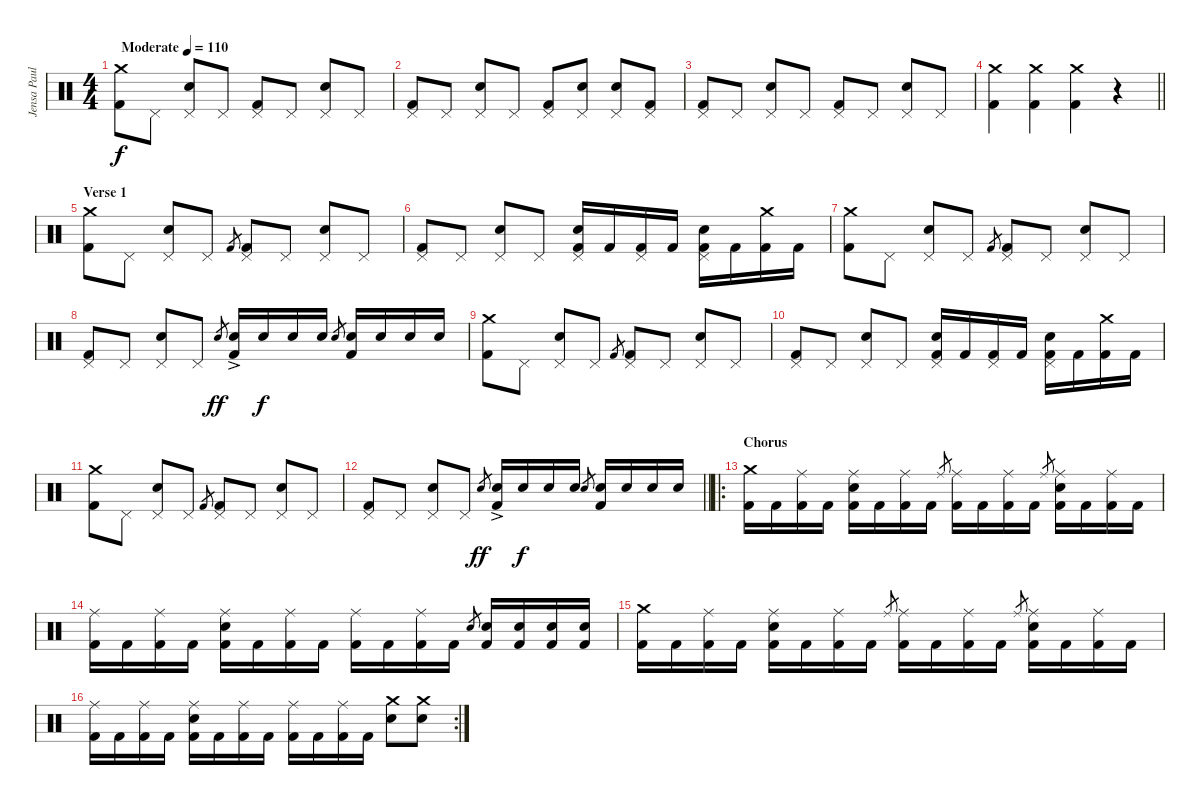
\track ("Jensa Paulsson (Drums)" "Jensa Paul") {instrument percussion}
\staff {score}
\articulation defaults
\ts (4 4)
\tempo (110 "Moderate")
\clef neutral
\ks c
("Crash medium (hit)" "Kick (hit) 2").8{dy f} "Pedal Hi-Hat (hit)".8 ("Pedal Hi-Hat (hit)" "Electric Snare (hit)").8 "Pedal Hi-Hat (hit)".8 ("Pedal Hi-Hat (hit)" "Kick (hit) 2").8 "Pedal Hi-Hat (hit)".8 ("Pedal Hi-Hat (hit)" "Electric Snare (hit)").8 "Pedal Hi-Hat (hit)".8 |
("Pedal Hi-Hat (hit)" "Kick (hit) 2").8 "Pedal Hi-Hat (hit)".8 ("Pedal Hi-Hat (hit)" "Electric Snare (hit)").8 "Pedal Hi-Hat (hit)".8 ("Pedal Hi-Hat (hit)" "Kick (hit) 2").8 ("Pedal Hi-Hat (hit)" "Electric Snare (hit)").8 ("Pedal Hi-Hat (hit)" "Electric Snare (hit)").8 ("Pedal Hi-Hat (hit)" "Kick (hit) 2").8 |
("Pedal Hi-Hat (hit)" "Kick (hit) 2").8 "Pedal Hi-Hat (hit)".8 ("Pedal Hi-Hat (hit)" "Electric Snare (hit)").8 "Pedal Hi-Hat (hit)".8 ("Pedal Hi-Hat (hit)" "Kick (hit) 2").8 "Pedal Hi-Hat (hit)".8 ("Pedal Hi-Hat (hit)" "Electric Snare (hit)").8 "Pedal Hi-Hat (hit)".8 |
\barLineRight lightlight
("Crash medium (hit)" "Kick (hit) 2").4 ("Crash medium (hit)" "Kick (hit) 2").4 ("Crash medium (hit)" "Kick (hit) 2").4 r.4 |
\section ("" "Verse 1")
("Crash medium (hit)" "Kick (hit) 2").8 "Pedal Hi-Hat (hit)".8 ("Pedal Hi-Hat (hit)" "Electric Snare (hit)").8 "Pedal Hi-Hat (hit)".8 "Kick (hit) 2".8{gr} ("Pedal Hi-Hat (hit)" "Kick (hit) 2").8 "Pedal Hi-Hat (hit)".8 ("Pedal Hi-Hat (hit)" "Electric Snare (hit)").8 "Pedal Hi-Hat (hit)".8 |
("Pedal Hi-Hat (hit)" "Kick (hit) 2").8 "Pedal Hi-Hat (hit)".8 ("Pedal Hi-Hat (hit)" "Electric Snare (hit)").8 "Pedal Hi-Hat (hit)".8 ("Pedal Hi-Hat (hit)" "Electric Snare (hit)" "Kick (hit) 2").16 "Kick (hit) 2".16 ("Pedal Hi-Hat (hit)" "Kick (hit) 2").16 "Kick (hit) 2".16 ("Pedal Hi-Hat (hit)" "Electric Snare (hit)" "Kick (hit) 2").16 "Kick (hit) 2".16 ("Crash medium (hit)" "Kick (hit) 2").16 "Kick (hit) 2".16 |
("Crash medium (hit)" "Kick (hit) 2").8 "Pedal Hi-Hat (hit)".8 ("Pedal Hi-Hat (hit)" "Electric Snare (hit)").8 "Pedal Hi-Hat (hit)".8 "Kick (hit) 2".8{gr} ("Pedal Hi-Hat (hit)" "Kick (hit) 2").8 "Pedal Hi-Hat (hit)".8 ("Pedal Hi-Hat (hit)" "Electric Snare (hit)").8 "Pedal Hi-Hat (hit)".8 |
("Pedal Hi-Hat (hit)" "Kick (hit) 2").8 "Pedal Hi-Hat (hit)".8 ("Pedal Hi-Hat (hit)" "Electric Snare (hit)").8 "Pedal Hi-Hat (hit)".8 "Electric Snare (hit)".8{gr dy ff} ("Electric Snare (hit)"{ac} "Kick (hit) 2").16 "Electric Snare (hit)".16{dy f} "Electric Snare (hit)".16 "Electric Snare (hit)".16 "Electric Snare (hit)".8{gr} ("Electric Snare (hit)" "Kick (hit) 2").16 "Electric Snare (hit)".16 "Electric Snare (hit)".16 "Electric Snare (hit)".16 |
("Crash medium (hit)" "Kick (hit) 2").8 "Pedal Hi-Hat (hit)".8 ("Pedal Hi-Hat (hit)" "Electric Snare (hit)").8 "Pedal Hi-Hat (hit)".8 "Kick (hit) 2".8{gr} ("Pedal Hi-Hat (hit)" "Kick (hit) 2").8 "Pedal Hi-Hat (hit)".8 ("Pedal Hi-Hat (hit)" "Electric Snare (hit)").8 "Pedal Hi-Hat (hit)".8 |
("Pedal Hi-Hat (hit)" "Kick (hit) 2").8 "Pedal Hi-Hat (hit)".8 ("Pedal Hi-Hat (hit)" "Electric Snare (hit)").8 "Pedal Hi-Hat (hit)".8 ("Pedal Hi-Hat (hit)" "Electric Snare (hit)" "Kick (hit) 2").16 "Kick (hit) 2".16 ("Pedal Hi-Hat (hit)" "Kick (hit) 2").16 "Kick (hit) 2".16 ("Pedal Hi-Hat (hit)" "Electric Snare (hit)" "Kick (hit) 2").16 "Kick (hit) 2".16 ("Crash medium (hit)" "Kick (hit) 2").16 "Kick (hit) 2".16 |
("Crash medium (hit)" "Kick (hit) 2").8 "Pedal Hi-Hat (hit)".8 ("Pedal Hi-Hat (hit)" "Electric Snare (hit)").8 "Pedal Hi-Hat (hit)".8 "Kick (hit) 2".8{gr} ("Pedal Hi-Hat (hit)" "Kick (hit) 2").8 "Pedal Hi-Hat (hit)".8 ("Pedal Hi-Hat (hit)" "Electric Snare (hit)").8 "Pedal Hi-Hat (hit)".8 |
\barLineRight lightlight
("Pedal Hi-Hat (hit)" "Kick (hit) 2").8 "Pedal Hi-Hat (hit)".8 ("Pedal Hi-Hat (hit)" "Electric Snare (hit)").8 "Pedal Hi-Hat (hit)".8 "Electric Snare (hit)".8{gr dy ff} ("Electric Snare (hit)"{ac} "Kick (hit) 2").16 "Electric Snare (hit)".16{dy f} "Electric Snare (hit)".16 "Electric Snare (hit)".16 "Electric Snare (hit)".8{gr} ("Electric Snare (hit)" "Kick (hit) 2").16 "Electric Snare (hit)".16 "Electric Snare (hit)".16 "Electric Snare (hit)".16 |
\ro
\section ("" "Chorus")
("Crash medium (hit)" "Kick (hit) 2").16 "Kick (hit) 2".16 ("Ride (middle)" "Kick (hit) 2").16 "Kick (hit) 2".16 ("Ride (middle)" "Electric Snare (hit)" "Kick (hit) 2").16 "Kick (hit) 2".16 ("Ride (middle)" "Kick (hit) 2").16 "Kick (hit) 2".16 "Ride (middle)".8{gr} ("Ride (middle)" "Kick (hit) 2").16 "Kick (hit) 2".16 ("Ride (middle)" "Kick (hit) 2").16 "Kick (hit) 2".16 "Ride (middle)".8{gr} ("Ride (middle)" "Electric Snare (hit)" "Kick (hit) 2").16 "Kick (hit) 2".16 ("Ride (middle)" "Kick (hit) 2").16 "Kick (hit) 2".16 |
("Ride (middle)" "Kick (hit) 2").16 "Kick (hit) 2".16 ("Ride (middle)" "Kick (hit) 2").16 "Kick (hit) 2".16 ("Ride (middle)" "Electric Snare (hit)" "Kick (hit) 2").16 "Kick (hit) 2".16 ("Ride (middle)" "Kick (hit) 2").16 "Kick (hit) 2".16 ("Ride (middle)" "Kick (hit) 2").16 "Kick (hit) 2".16 ("Ride (middle)" "Kick (hit) 2").16 "Kick (hit) 2".16 "Electric Snare (hit)".8{gr} ("Electric Snare (hit)" "Kick (hit) 2").16 ("Electric Snare (hit)" "Kick (hit) 2").16 ("Electric Snare (hit)" "Kick (hit) 2").16 ("Electric Snare (hit)" "Kick (hit) 2").16 |
("Crash medium (hit)" "Kick (hit) 2").16 "Kick (hit) 2".16 ("Ride (middle)" "Kick (hit) 2").16 "Kick (hit) 2".16 ("Ride (middle)" "Electric Snare (hit)" "Kick (hit) 2").16 "Kick (hit) 2".16 ("Ride (middle)" "Kick (hit) 2").16 "Kick (hit) 2".16 "Ride (middle)".8{gr} ("Ride (middle)" "Kick (hit) 2").16 "Kick (hit) 2".16 ("Ride (middle)" "Kick (hit) 2").16 "Kick (hit) 2".16 "Ride (middle)".8{gr} ("Ride (middle)" "Electric Snare (hit)" "Kick (hit) 2").16 "Kick (hit) 2".16 ("Ride (middle)" "Kick (hit) 2").16 "Kick (hit) 2".16 |
\rc 2
("Ride (middle)" "Kick (hit) 2").16 "Kick (hit) 2".16 ("Ride (middle)" "Kick (hit) 2").16 "Kick (hit) 2".16 ("Ride (middle)" "Electric Snare (hit)" "Kick (hit) 2").16 "Kick (hit) 2".16 ("Ride (middle)" "Kick (hit) 2").16 "Kick (hit) 2".16 ("Ride (middle)" "Kick (hit) 2").16 "Kick (hit) 2".16 ("Ride (middle)" "Kick (hit) 2").16 "Kick (hit) 2".16 ("Crash medium (hit)" "Electric Snare (hit)").8 ("Crash medium (hit)" "Electric Snare (hit)").8
